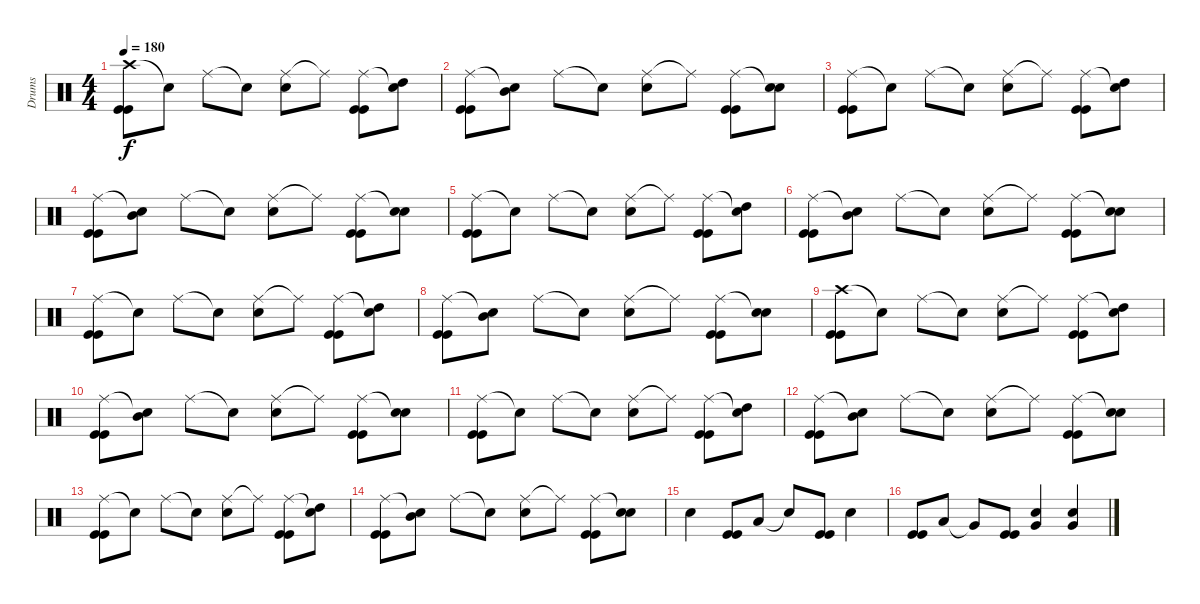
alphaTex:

\track ("Drums" "Drums") {instrument percussion}
\staff {score}
\articulation defaults
\ts (4 4)
\tempo 180
\clef neutral
\ks c
("Crash high (hit)" "Kick (hit)" "Kick (hit)").8{dy f} "Snare (hit)"{t}.8 "Ride (middle)".8 "Snare (hit)"{t}.8 ("Ride (middle)" "Snare (hit) 2").8 "Ride (middle)"{t}.8 ("Ride (middle)" "Kick (hit)" "Kick (hit)").8 ("Snare (hit)"{t} "High Tom (hit)").8 |
("Ride (middle)" "Kick (hit)" "Kick (hit)").8 ("Snare (hit)"{t} "Mid Tom (hit)").8 "Ride (middle)".8 "Snare (hit)"{t}.8 ("Ride (middle)" "Snare (hit) 2").8 "Ride (middle)"{t}.8 ("Ride (middle)" "Kick (hit)" "Kick (hit)").8 ("Snare (hit)"{t} "Snare (hit) 2").8 |
("Ride (middle)" "Kick (hit)" "Kick (hit)").8 "Snare (hit)"{t}.8 "Ride (middle)".8 "Snare (hit)"{t}.8 ("Ride (middle)" "Snare (hit) 2").8 "Ride (middle)"{t}.8 ("Ride (middle)" "Kick (hit)" "Kick (hit)").8 ("Snare (hit)"{t} "High Tom (hit)").8 |
("Ride (middle)" "Kick (hit)" "Kick (hit)").8 ("Snare (hit)"{t} "Mid Tom (hit)").8 "Ride (middle)".8 "Snare (hit)"{t}.8 ("Ride (middle)" "Snare (hit) 2").8 "Ride (middle)"{t}.8 ("Ride (middle)" "Kick (hit)" "Kick (hit)").8 ("Snare (hit)"{t} "Snare (hit) 2").8 |
("Ride (middle)" "Kick (hit)" "Kick (hit)").8 "Snare (hit)"{t}.8 "Ride (middle)".8 "Snare (hit)"{t}.8 ("Ride (middle)" "Snare (hit) 2").8 "Ride (middle)"{t}.8 ("Ride (middle)" "Kick (hit)" "Kick (hit)").8 ("Snare (hit)"{t} "High Tom (hit)").8 |
("Ride (middle)" "Kick (hit)" "Kick (hit)").8 ("Snare (hit)"{t} "Mid Tom (hit)").8 "Ride (middle)".8 "Snare (hit)"{t}.8 ("Ride (middle)" "Snare (hit) 2").8 "Ride (middle)"{t}.8 ("Ride (middle)" "Kick (hit)" "Kick (hit)").8 ("Snare (hit)"{t} "Snare (hit) 2").8 |
("Ride (middle)" "Kick (hit)" "Kick (hit)").8 "Snare (hit)"{t}.8 "Ride (middle)".8 "Snare (hit)"{t}.8 ("Ride (middle)" "Snare (hit) 2").8 "Ride (middle)"{t}.8 ("Ride (middle)" "Kick (hit)" "Kick (hit)").8 ("Snare (hit)"{t} "High Tom (hit)").8 |
("Ride (middle)" "Kick (hit)" "Kick (hit)").8 ("Snare (hit)"{t} "Mid Tom (hit)").8 "Ride (middle)".8 "Snare (hit)"{t}.8 ("Ride (middle)" "Snare (hit) 2").8 "Ride (middle)"{t}.8 ("Ride (middle)" "Kick (hit)" "Kick (hit)").8 ("Snare (hit)"{t} "Snare (hit) 2").8 |
("Crash high (hit)" "Kick (hit)" "Kick (hit)").8 "Snare (hit)"{t}.8 "Ride (middle)".8 "Snare (hit)"{t}.8 ("Ride (middle)" "Snare (hit) 2").8 "Ride (middle)"{t}.8 ("Ride (middle)" "Kick (hit)" "Kick (hit)").8 ("Snare (hit)"{t} "High Tom (hit)").8 |
("Ride (middle)" "Kick (hit)" "Kick (hit)").8 ("Snare (hit)"{t} "Mid Tom (hit)").8 "Ride (middle)".8 "Snare (hit)"{t}.8 ("Ride (middle)" "Snare (hit) 2").8 "Ride (middle)"{t}.8 ("Ride (middle)" "Kick (hit)" "Kick (hit)").8 ("Snare (hit)"{t} "Snare (hit) 2").8 |
("Ride (middle)" "Kick (hit)" "Kick (hit)").8 "Snare (hit)"{t}.8 "Ride (middle)".8 "Snare (hit)"{t}.8 ("Ride (middle)" "Snare (hit) 2").8 "Ride (middle)"{t}.8 ("Ride (middle)" "Kick (hit)" "Kick (hit)").8 ("Snare (hit)"{t} "High Tom (hit)").8 |
("Ride (middle)" "Kick (hit)" "Kick (hit)").8 ("Snare (hit)"{t} "Mid Tom (hit)").8 "Ride (middle)".8 "Snare (hit)"{t}.8 ("Ride (middle)" "Snare (hit) 2").8 "Ride (middle)"{t}.8 ("Ride (middle)" "Kick (hit)" "Kick (hit)").8 ("Snare (hit)"{t} "Snare (hit) 2").8 |
("Ride (middle)" "Kick (hit)" "Kick (hit)").8 "Snare (hit)"{t}.8 "Ride (middle)".8 "Snare (hit)"{t}.8 ("Ride (middle)" "Snare (hit) 2").8 "Ride (middle)"{t}.8 ("Ride (middle)" "Kick (hit)" "Kick (hit)").8 ("Snare (hit)"{t} "High Tom (hit)").8 |
("Ride (middle)" "Kick (hit)" "Kick (hit)").8 ("Snare (hit)"{t} "Mid Tom (hit)").8 "Ride (middle)".8 "Snare (hit)"{t}.8 ("Ride (middle)" "Snare (hit) 2").8 "Ride (middle)"{t}.8 ("Ride (middle)" "Kick (hit)" "Kick (hit)").8 ("Snare (hit)"{t} "Snare (hit) 2").8 |
"Snare (hit) 2".4 ("Kick (hit)" "Kick (hit)").8 "Low Tom (hit)".8 "Snare (hit)"{t}.8 ("Kick (hit)" "Kick (hit)").8 "Snare (hit) 2".4 |
("Kick (hit)" "Kick (hit)").8 "Low Tom (hit)".8 "Very Low Tom (hit)"{t}.8 ("Kick (hit)" "Kick (hit)").8 ("Snare (hit) 2" "Very Low Tom (hit)").4 ("Snare (hit) 2" "Very Low Tom (hit)").4
